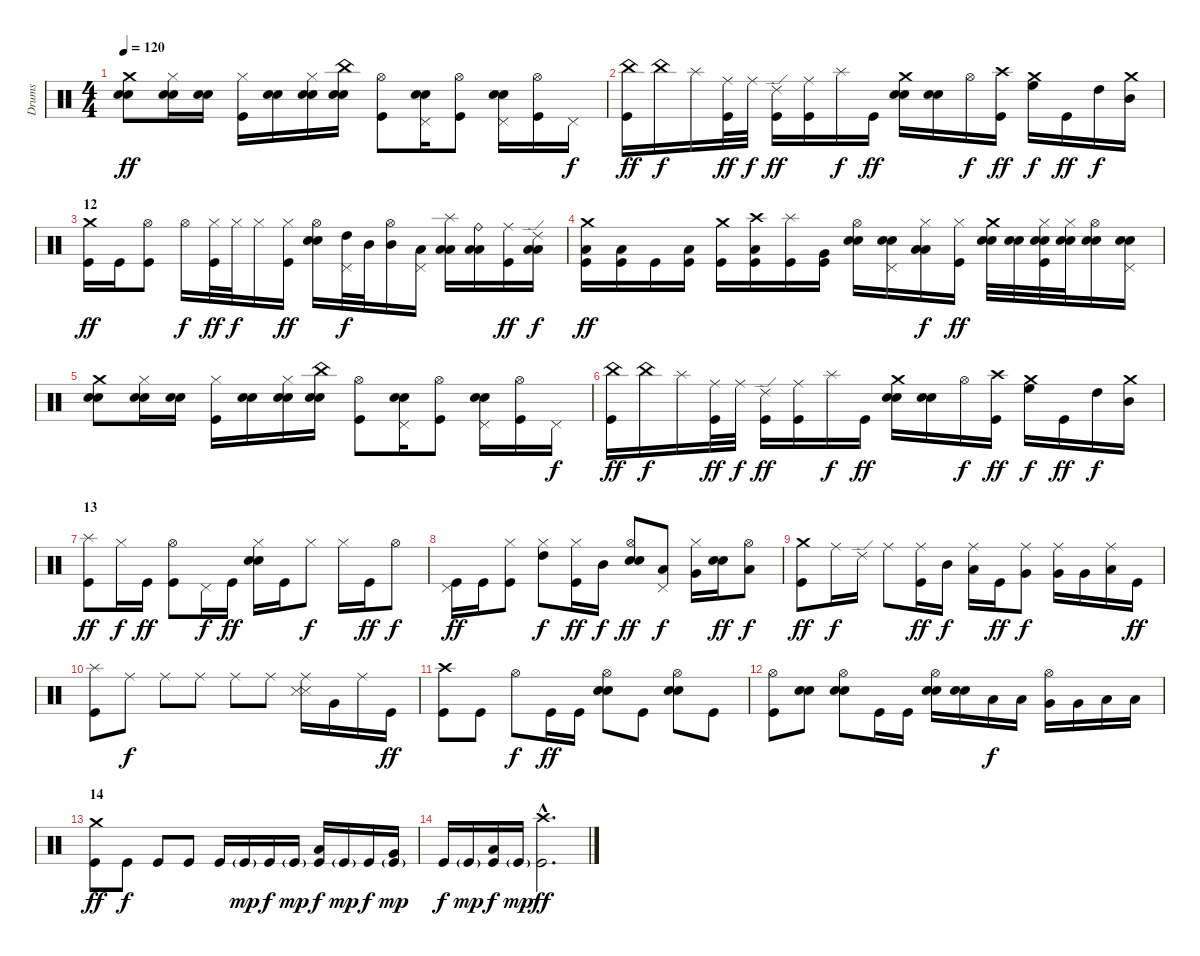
\track ("Drums" "Drums") {instrument percussion}
\staff {score}
\articulation defaults
\ts (4 4)
\tempo 120
\clef neutral
\ks c
("Electric Snare (hit)" "Electric Snare (hit)" "Crash medium (hit)").8{dy ff} ("Electric Snare (hit)" "Electric Snare (hit)" "Hi-Hat (closed)").16 ("Electric Snare (hit)" "Electric Snare (hit)").16 ("Kick (hit)" "Hi-Hat (closed)").16 ("Electric Snare (hit)" "Electric Snare (hit)").16 ("Electric Snare (hit)" "Electric Snare (hit)" "Hi-Hat (closed)").16 ("Electric Snare (hit)" "Electric Snare (hit)" "China (hit)").16 ("Kick (hit)" "Hi-Hat (open)").8 ("Electric Snare (hit)" "Electric Snare (hit)" "Pedal Hi-Hat (hit)").16 ("Kick (hit)" "Hi-Hat (open)").8 ("Electric Snare (hit)" "Electric Snare (hit)" "Pedal Hi-Hat (hit)").16 ("Kick (hit)" "Hi-Hat (open)").16 "Pedal Hi-Hat (hit)".16{dy f} |
("Kick (hit)" "China (hit)").16{dy ff} "China (hit)".16{dy f} "Splash (hit)".16 ("Kick (hit)" "Ride (middle)").32{dy ff} "Ride (middle)".32{dy f} ("Kick (hit)" "Ride (edge) 2").16{dy ff} ("Kick (hit)" "Ride (middle)").16 "Splash (hit)".16{dy f} "Kick (hit)".16{dy ff} ("Electric Snare (hit)" "Electric Snare (hit)" "Crash medium (hit)").16 ("Electric Snare (hit)" "Electric Snare (hit)").16 "Hi-Hat (open)".16{dy f} ("Kick (hit)" "Crash high (hit)").16{dy ff} ("High Floor Tom (hit)" "Crash medium (hit)").16{dy f} "Kick (hit)".16{dy ff} "High Tom (hit)".16{dy f} ("Mid Tom (hit)" "Crash medium (hit)").16 |
\section ("" "12")
("Kick (hit)" "Crash medium (hit)").16{dy ff} "Kick (hit)".16 ("Kick (hit)" "Hi-Hat (open)").8 "Hi-Hat (open)".16{dy f} ("Kick (hit)" "Hi-Hat (closed)").32{dy ff} "Hi-Hat (closed)".32{dy f} "Hi-Hat (closed)".16 ("Kick (hit)" "Hi-Hat (closed)").16{dy ff} ("Electric Snare (hit)" "Electric Snare (hit)" "Hi-Hat (open)").16 ("High Tom (hit)" "Pedal Hi-Hat (hit)").32{dy f} "Mid Tom (hit)".32 ("Mid Tom (hit)" "Hi-Hat (open)").16 ("Low Tom (hit)" "Pedal Hi-Hat (hit)").16 ("Low Floor Tom (hit)" "Low Floor Tom (hit)" "Splash (hit)").16 ("Low Floor Tom (hit)" "Low Floor Tom (hit)" "Ride (bell)").16 ("Kick (hit)" "Ride (middle)").16{dy ff} ("Low Floor Tom (hit)" "Low Floor Tom (hit)" "Ride (edge) 2").16{dy f} |
("Kick (hit)" "Low Tom (hit)" "Crash medium (hit)").16{dy ff} ("Kick (hit)" "Low Tom (hit)").16 "Kick (hit)".16 ("Kick (hit)" "Low Tom (hit)").16 ("Kick (hit)" "Crash medium (hit)").16 ("Kick (hit)" "Low Tom (hit)" "Crash high (hit)").16 ("Kick (hit)" "Splash (hit)").16 ("Kick (hit)" "Very Low Tom (hit)").16 ("Electric Snare (hit)" "Electric Snare (hit)" "Hi-Hat (open)").16 ("Electric Snare (hit)" "Electric Snare (hit)" "Pedal Hi-Hat (hit)").16 ("Low Floor Tom (hit)" "Low Floor Tom (hit)" "Hi-Hat (closed)").16{dy f} ("Kick (hit)" "Hi-Hat (closed)").16{dy ff} ("Electric Snare (hit)" "Electric Snare (hit)" "Crash medium (hit)").32 ("Electric Snare (hit)" "Electric Snare (hit)").32 ("Kick (hit)" "Electric Snare (hit)" "Electric Snare (hit)" "Hi-Hat (closed)").32 ("Electric Snare (hit)" "Electric Snare (hit)" "Hi-Hat (closed)").32 ("Electric Snare (hit)" "Electric Snare (hit)" "Hi-Hat (open)").16 ("Electric Snare (hit)" "Electric Snare (hit)" "Pedal Hi-Hat (hit)").16 |
("Electric Snare (hit)" "Electric Snare (hit)" "Crash medium (hit)").8 ("Electric Snare (hit)" "Electric Snare (hit)" "Hi-Hat (closed)").16 ("Electric Snare (hit)" "Electric Snare (hit)").16 ("Kick (hit)" "Hi-Hat (closed)").16 ("Electric Snare (hit)" "Electric Snare (hit)").16 ("Electric Snare (hit)" "Electric Snare (hit)" "Hi-Hat (closed)").16 ("Electric Snare (hit)" "Electric Snare (hit)" "China (hit)").16 ("Kick (hit)" "Hi-Hat (open)").8 ("Electric Snare (hit)" "Electric Snare (hit)" "Pedal Hi-Hat (hit)").16 ("Kick (hit)" "Hi-Hat (open)").8 ("Electric Snare (hit)" "Electric Snare (hit)" "Pedal Hi-Hat (hit)").16 ("Kick (hit)" "Hi-Hat (open)").16 "Pedal Hi-Hat (hit)".16{dy f} |
("Kick (hit)" "China (hit)").16{dy ff} "China (hit)".16{dy f} "Splash (hit)".16 ("Kick (hit)" "Ride (middle)").32{dy ff} "Ride (middle)".32{dy f} ("Kick (hit)" "Ride (edge) 2").16{dy ff} ("Kick (hit)" "Ride (middle)").16 "Splash (hit)".16{dy f} "Kick (hit)".16{dy ff} ("Electric Snare (hit)" "Electric Snare (hit)" "Crash medium (hit)").16 ("Electric Snare (hit)" "Electric Snare (hit)").16 "Hi-Hat (open)".16{dy f} ("Kick (hit)" "Crash high (hit)").16{dy ff} ("High Floor Tom (hit)" "Crash medium (hit)").16{dy f} "Kick (hit)".16{dy ff} "High Tom (hit)".16{dy f} ("Mid Tom (hit)" "Crash medium (hit)").16 |
\section ("" "13")
("Kick (hit)" "Splash (hit)").8{dy ff} "Hi-Hat (closed)".16{dy f} "Kick (hit)".16{dy ff} ("Kick (hit)" "Hi-Hat (open)").8 "Pedal Hi-Hat (hit)".16{dy f} "Kick (hit)".16{dy ff} ("Snare (hit) 2" "Electric Snare (hit)" "Hi-Hat (closed)").16 "Kick (hit)".16 "Hi-Hat (closed)".8{dy f} "Hi-Hat (closed)".16 "Kick (hit)".16{dy ff} "Hi-Hat (open)".8{dy f} |
("Kick (hit)" "Pedal Hi-Hat (hit)").16{dy ff} "Kick (hit)".16 ("Kick (hit)" "Hi-Hat (closed)").8 ("High Tom (hit)" "Hi-Hat (closed)").8{dy f} ("Kick (hit)" "Hi-Hat (closed)").16{dy ff} "Mid Tom (hit)".16{dy f} ("Snare (hit) 2" "Electric Snare (hit)" "Hi-Hat (open)").8{dy ff} ("Low Tom (hit)" "Pedal Hi-Hat (hit)").8{dy f} ("Very Low Tom (hit)" "Hi-Hat (closed)").16 ("Snare (hit) 2" "Electric Snare (hit)").16{dy ff} ("Low Floor Tom (hit)" "Hi-Hat (open)").8{dy f} |
("Kick (hit)" "Crash medium (hit)").8{dy ff} "Ride (middle)".16{dy f} "Ride (edge) 2".16 "Ride (middle)".8 ("Kick (hit)" "Ride (middle)").16{dy ff} "Mid Tom (hit)".16{dy f} ("Low Tom (hit)" "Ride (middle)").16 "Kick (hit)".16{dy ff} ("Very Low Tom (hit)" "Ride (middle)").8{dy f} ("Very Low Tom (hit)" "Ride (middle)").16 "Very Low Tom (hit)".16 ("Low Floor Tom (hit)" "Ride (middle)").16 "Kick (hit)".16{dy ff} |
("Kick (hit)" "Splash (hit)").8 "Ride (middle)".8{dy f} "Ride (middle)".8 "Ride (middle)".8 "Ride (middle)".8 "Ride (middle)".8 ("Snare (side stick) 3" "Snare (side stick) 3" "Ride (middle)").16 "Very Low Tom (hit)".16 "Ride (middle)".16 "Kick (hit)".16{dy ff} |
("Kick (hit)" "Crash high (hit)").8 "Kick (hit)".8 "Hi-Hat (open)".8{dy f} "Kick (hit)".16{dy ff} "Kick (hit)".16 ("Electric Snare (hit)" "Electric Snare (hit)" "Hi-Hat (open)").8 "Kick (hit)".8 ("Electric Snare (hit)" "Electric Snare (hit)" "Hi-Hat (open)").8 "Kick (hit)".8 |
("Kick (hit)" "Hi-Hat (open)").8 ("Electric Snare (hit)" "Electric Snare (hit)").8 ("Electric Snare (hit)" "Electric Snare (hit)" "Hi-Hat (open)").8 "Kick (hit)".16 "Kick (hit)".16 ("Electric Snare (hit)" "Electric Snare (hit)" "Hi-Hat (open)").16 ("Electric Snare (hit)" "Electric Snare (hit)").16 "Low Tom (hit)".16{dy f} "Low Tom (hit)".16 ("Very Low Tom (hit)" "Hi-Hat (open)").16 "Very Low Tom (hit)".16 "Low Floor Tom (hit)".16 "Low Floor Tom (hit)".16 |
\section ("" "14")
("Kick (hit)" "Crash medium (hit)").8{dy ff} "Kick (hit)".8{dy f} "Kick (hit)".8 "Kick (hit)".8 "Kick (hit)".16 "Kick (hit)"{g}.16{dy mp} "Kick (hit)".16{dy f} "Kick (hit)"{g}.16{dy mp} ("Kick (hit)" "Low Tom (hit)").16{dy f} "Kick (hit)"{g}.16{dy mp} "Kick (hit)".16{dy f} ("Kick (hit)"{g} "Very Low Tom (hit)").16{dy mp} |
"Kick (hit)".16{dy f} "Kick (hit)"{g}.16{dy mp} ("Kick (hit)" "Low Floor Tom (hit)").16{dy f} "Kick (hit)"{g}.16{dy mp} ("Kick (hit)"{hac} "Crash high (hit)"{hac}).2{d dy ff}
